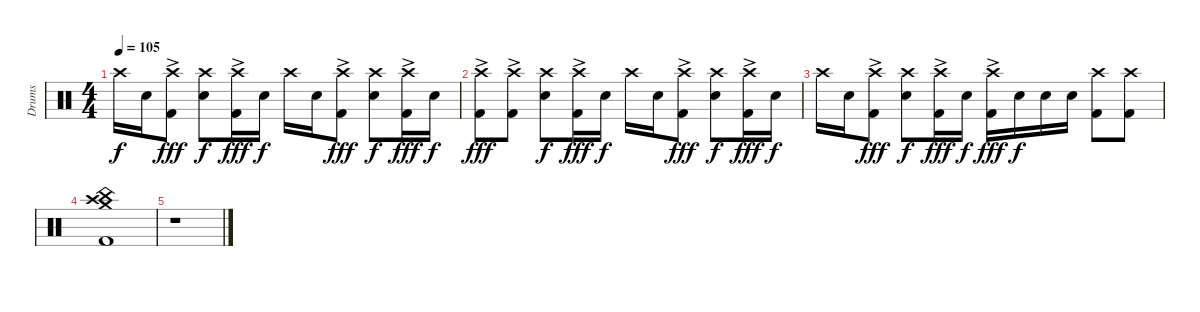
\track ("Drums" "Drums") {instrument percussion}
\staff {score}
\articulation defaults
\ts (4 4)
\tempo 105
\clef neutral
\ks aminor "Crash high (hit)".16{dy f} "Snare (hit) 2".16
("Crash high (hit)" "Kick (hit) 2"{ac}).8{dy fff} ("Crash high (hit)" "Snare (hit) 2").8{dy f} ("Crash high (hit)" "Kick (hit) 2"{ac}).16{dy fff} "Snare (hit) 2".16{dy f} "Crash high (hit)".16 "Snare (hit) 2".16 ("Crash high (hit)" "Kick (hit) 2"{ac}).8{dy fff} ("Crash high (hit)" "Snare (hit) 2").8{dy f} ("Crash high (hit)" "Kick (hit) 2"{ac}).16{dy fff} "Snare (hit) 2".16{dy f} |
("Crash high (hit)" "Kick (hit) 2"{ac}).8{dy fff} ("Crash high (hit)" "Kick (hit) 2"{ac}).8 ("Crash high (hit)" "Snare (hit) 2").8{dy f} ("Crash high (hit)" "Kick (hit) 2"{ac}).16{dy fff} "Snare (hit) 2".16{dy f} "Crash high (hit)".16 "Snare (hit) 2".16 ("Crash high (hit)" "Kick (hit) 2"{ac}).8{dy fff} ("Crash high (hit)" "Snare (hit) 2").8{dy f} ("Crash high (hit)" "Kick (hit) 2"{ac}).16{dy fff} "Snare (hit) 2".16{dy f} |
"Crash high (hit)".16 "Snare (hit) 2".16 ("Crash high (hit)" "Kick (hit) 2"{ac}).8{dy fff} ("Crash high (hit)" "Snare (hit) 2").8{dy f} ("Crash high (hit)" "Kick (hit) 2"{ac}).16{dy fff} "Snare (hit) 2".16{dy f} ("Crash high (hit)" "Kick (hit) 2"{ac}).16{dy fff} "Snare (hit) 2".16{dy f} "Snare (hit) 2".16 "Snare (hit) 2".16 ("Crash high (hit)" "Kick (hit) 2").8 ("Crash high (hit)" "Kick (hit) 2").8 |
("Crash high (hit)" "Crash medium (hit)" "China (hit)" "Kick (hit) 2").1 |
r.1
